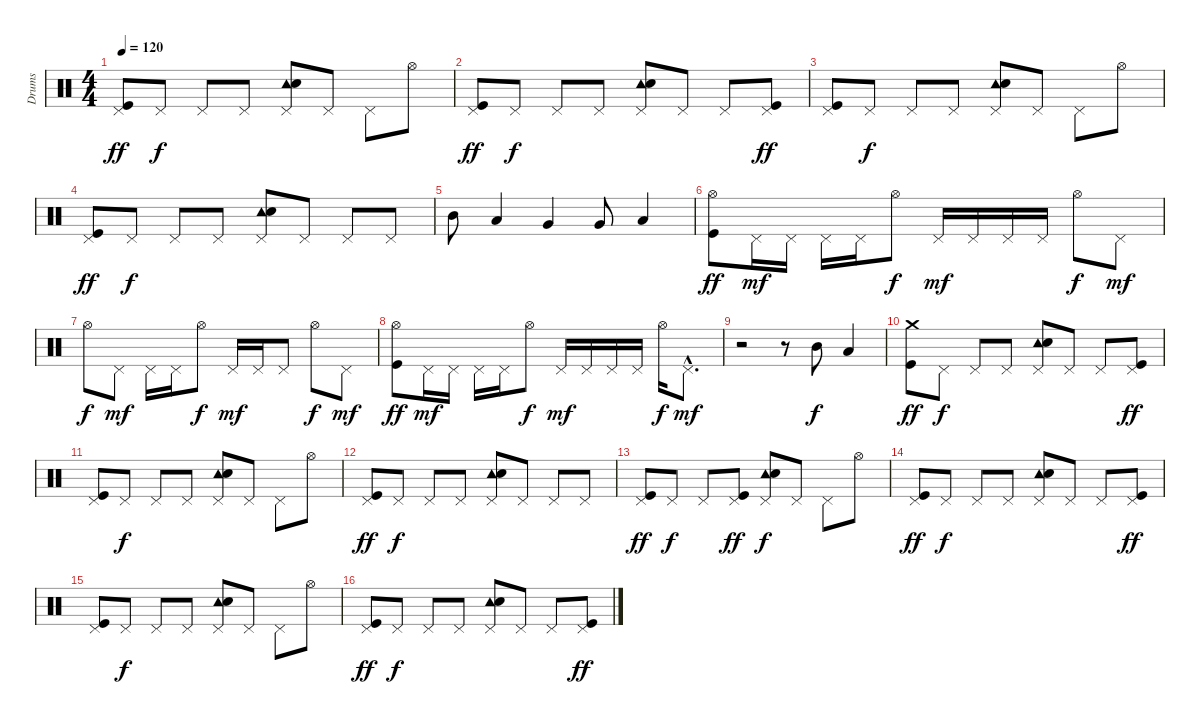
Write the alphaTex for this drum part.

\track ("Drums" "Drums") {instrument percussion}
\staff {score}
\articulation defaults
\ts (4 4)
\tempo 120
\clef neutral
\ks c
("Pedal Hi-Hat (hit)" "Kick (hit)").8{dy ff} "Pedal Hi-Hat (hit)".8{dy f} "Pedal Hi-Hat (hit)".8 "Pedal Hi-Hat (hit)".8 ("Pedal Hi-Hat (hit)" "Tambourine (hit)" "Electric Snare (hit)").8 "Pedal Hi-Hat (hit)".8 "Pedal Hi-Hat (hit)".8 "Hi-Hat (open)".8 |
("Pedal Hi-Hat (hit)" "Kick (hit)").8{dy ff} "Pedal Hi-Hat (hit)".8{dy f} "Pedal Hi-Hat (hit)".8 "Pedal Hi-Hat (hit)".8 ("Pedal Hi-Hat (hit)" "Tambourine (hit)" "Electric Snare (hit)").8 "Pedal Hi-Hat (hit)".8 "Pedal Hi-Hat (hit)".8 ("Pedal Hi-Hat (hit)" "Kick (hit)").8{dy ff} |
("Pedal Hi-Hat (hit)" "Kick (hit)").8 "Pedal Hi-Hat (hit)".8{dy f} "Pedal Hi-Hat (hit)".8 "Pedal Hi-Hat (hit)".8 ("Pedal Hi-Hat (hit)" "Tambourine (hit)" "Electric Snare (hit)").8 "Pedal Hi-Hat (hit)".8 "Pedal Hi-Hat (hit)".8 "Hi-Hat (open)".8 |
("Pedal Hi-Hat (hit)" "Kick (hit)").8{dy ff} "Pedal Hi-Hat (hit)".8{dy f} "Pedal Hi-Hat (hit)".8 "Pedal Hi-Hat (hit)".8 ("Pedal Hi-Hat (hit)" "Tambourine (hit)" "Electric Snare (hit)").8 "Pedal Hi-Hat (hit)".8 "Pedal Hi-Hat (hit)".8 "Pedal Hi-Hat (hit)".8 |
"Mid Tom (hit)".8 "Low Tom (hit)".4 "Very Low Tom (hit)".4 "Very Low Tom (hit)".8 "Low Floor Tom (hit)".4 |
("Hi-Hat (open)" "Kick (hit)").8{dy ff} "Pedal Hi-Hat (hit)".16{dy mf} "Pedal Hi-Hat (hit)".16 "Pedal Hi-Hat (hit)".16 "Pedal Hi-Hat (hit)".16 "Hi-Hat (open)".8{dy f} "Pedal Hi-Hat (hit)".16{dy mf} "Pedal Hi-Hat (hit)".16 "Pedal Hi-Hat (hit)".16 "Pedal Hi-Hat (hit)".16 "Hi-Hat (open)".8{dy f} "Pedal Hi-Hat (hit)".8{dy mf} |
"Hi-Hat (open)".8{dy f} "Pedal Hi-Hat (hit)".8{dy mf} "Pedal Hi-Hat (hit)".16 "Pedal Hi-Hat (hit)".16 "Hi-Hat (open)".8{dy f} "Pedal Hi-Hat (hit)".16{dy mf} "Pedal Hi-Hat (hit)".16 "Pedal Hi-Hat (hit)".8 "Hi-Hat (open)".8{dy f} "Pedal Hi-Hat (hit)".8{dy mf} |
("Hi-Hat (open)" "Kick (hit)").8{dy ff} "Pedal Hi-Hat (hit)".16{dy mf} "Pedal Hi-Hat (hit)".16 "Pedal Hi-Hat (hit)".16 "Pedal Hi-Hat (hit)".16 "Hi-Hat (open)".8{dy f} "Pedal Hi-Hat (hit)".16{dy mf} "Pedal Hi-Hat (hit)".16 "Pedal Hi-Hat (hit)".16 "Pedal Hi-Hat (hit)".16 "Hi-Hat (open)".16{dy f} "Pedal Hi-Hat (hit)"{hac}.8{d dy mf} |
r.2 r.8 "Mid Tom (hit)".8{dy f} "Low Tom (hit)".4 |
("Crash medium (hit)" "Kick (hit)").8{dy ff} "Pedal Hi-Hat (hit)".8{dy f} "Pedal Hi-Hat (hit)".8 "Pedal Hi-Hat (hit)".8 ("Pedal Hi-Hat (hit)" "Tambourine (hit)" "Electric Snare (hit)").8 "Pedal Hi-Hat (hit)".8 "Pedal Hi-Hat (hit)".8 ("Pedal Hi-Hat (hit)" "Kick (hit)").8{dy ff} |
("Pedal Hi-Hat (hit)" "Kick (hit)").8 "Pedal Hi-Hat (hit)".8{dy f} "Pedal Hi-Hat (hit)".8 "Pedal Hi-Hat (hit)".8 ("Pedal Hi-Hat (hit)" "Tambourine (hit)" "Electric Snare (hit)").8 "Pedal Hi-Hat (hit)".8 "Pedal Hi-Hat (hit)".8 "Hi-Hat (open)".8 |
("Pedal Hi-Hat (hit)" "Kick (hit)").8{dy ff} "Pedal Hi-Hat (hit)".8{dy f} "Pedal Hi-Hat (hit)".8 "Pedal Hi-Hat (hit)".8 ("Pedal Hi-Hat (hit)" "Tambourine (hit)" "Electric Snare (hit)").8 "Pedal Hi-Hat (hit)".8 "Pedal Hi-Hat (hit)".8 "Pedal Hi-Hat (hit)".8 |
("Pedal Hi-Hat (hit)" "Kick (hit)").8{dy ff} "Pedal Hi-Hat (hit)".8{dy f} "Pedal Hi-Hat (hit)".8 ("Pedal Hi-Hat (hit)" "Kick (hit)").8{dy ff} ("Pedal Hi-Hat (hit)" "Tambourine (hit)" "Electric Snare (hit)").8{dy f} "Pedal Hi-Hat (hit)".8 "Pedal Hi-Hat (hit)".8 "Hi-Hat (open)".8 |
("Pedal Hi-Hat (hit)" "Kick (hit)").8{dy ff} "Pedal Hi-Hat (hit)".8{dy f} "Pedal Hi-Hat (hit)".8 "Pedal Hi-Hat (hit)".8 ("Pedal Hi-Hat (hit)" "Tambourine (hit)" "Electric Snare (hit)").8 "Pedal Hi-Hat (hit)".8 "Pedal Hi-Hat (hit)".8 ("Pedal Hi-Hat (hit)" "Kick (hit)").8{dy ff} |
("Pedal Hi-Hat (hit)" "Kick (hit)").8 "Pedal Hi-Hat (hit)".8{dy f} "Pedal Hi-Hat (hit)".8 "Pedal Hi-Hat (hit)".8 ("Pedal Hi-Hat (hit)" "Tambourine (hit)" "Electric Snare (hit)").8 "Pedal Hi-Hat (hit)".8 "Pedal Hi-Hat (hit)".8 "Hi-Hat (open)".8 |
("Pedal Hi-Hat (hit)" "Kick (hit)").8{dy ff} "Pedal Hi-Hat (hit)".8{dy f} "Pedal Hi-Hat (hit)".8 "Pedal Hi-Hat (hit)".8 ("Pedal Hi-Hat (hit)" "Tambourine (hit)" "Electric Snare (hit)").8 "Pedal Hi-Hat (hit)".8 "Pedal Hi-Hat (hit)".8 ("Pedal Hi-Hat (hit)" "Kick (hit)").8{dy ff}
